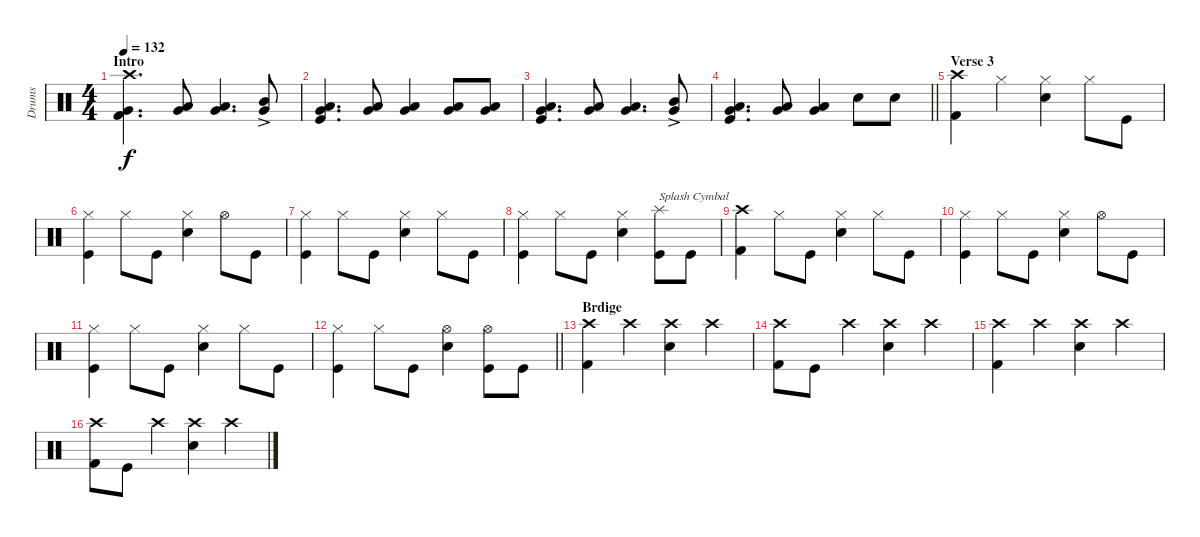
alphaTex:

\track ("Drums" "Drums") {instrument percussion}
\staff {score}
\articulation defaults
\ts (4 4)
\section ("" "Intro")
\tempo 132
\clef neutral
\ks c
("Crash high (hit)" "Very Low Tom (hit)" "Kick (hit) 2").4{d dy f} ("Very Low Tom (hit)" "Low Tom (hit)").8 ("Low Tom (hit)" "Very Low Tom (hit)").4{d} ("Very Low Tom (hit)"{ac} "Mid Tom (hit)"{ac}).8 |
("Very Low Tom (hit)" "Low Tom (hit)" "Kick (hit)").4{d} ("Very Low Tom (hit)" "Low Tom (hit)").8 ("Low Tom (hit)" "Very Low Tom (hit)").4 ("Very Low Tom (hit)" "Low Tom (hit)").8 ("Low Tom (hit)" "Very Low Tom (hit)").8 |
("Very Low Tom (hit)" "Low Tom (hit)" "Kick (hit)").4{d} ("Very Low Tom (hit)" "Low Tom (hit)").8 ("Low Tom (hit)" "Very Low Tom (hit)").4{d} ("Mid Tom (hit)"{ac} "Very Low Tom (hit)"{ac}).8 |
\barLineRight lightlight
("Very Low Tom (hit)" "Low Tom (hit)" "Kick (hit)").4{d} ("Very Low Tom (hit)" "Low Tom (hit)").8 ("Low Tom (hit)" "Very Low Tom (hit)").4 "Snare (hit) 2".8 "Snare (hit) 2".8 |
\section ("" "Verse 3")
("Crash high (hit)" "Kick (hit) 2").4 "Hi-Hat (closed)".4 ("Hi-Hat (closed)" "Snare (hit) 2").4 "Hi-Hat (closed)".8 "Kick (hit)".8 |
("Hi-Hat (closed)" "Kick (hit)").4 "Hi-Hat (closed)".8 "Kick (hit)".8 ("Hi-Hat (closed)" "Snare (hit) 2").4 "Hi-Hat (open)".8 "Kick (hit)".8 |
("Hi-Hat (closed)" "Kick (hit)").4 "Hi-Hat (closed)".8 "Kick (hit)".8 ("Hi-Hat (closed)" "Snare (hit) 2").4 "Hi-Hat (closed)".8 "Kick (hit)".8 |
("Hi-Hat (closed)" "Kick (hit)").4 "Hi-Hat (closed)".8 "Kick (hit)".8 ("Hi-Hat (closed)" "Snare (hit) 2").4 ("Splash (hit)" "Kick (hit)").8{txt "Splash Cymbal"} "Kick (hit)".8 |
("Crash high (hit)" "Kick (hit) 2").4 "Hi-Hat (closed)".8 "Kick (hit)".8 ("Hi-Hat (closed)" "Snare (hit) 2").4 "Hi-Hat (closed)".8 "Kick (hit)".8 |
("Hi-Hat (closed)" "Kick (hit)").4 "Hi-Hat (closed)".8 "Kick (hit)".8 ("Hi-Hat (closed)" "Snare (hit) 2").4 "Hi-Hat (open)".8 "Kick (hit)".8 |
("Hi-Hat (closed)" "Kick (hit)").4 "Hi-Hat (closed)".8 "Kick (hit)".8 ("Hi-Hat (closed)" "Snare (hit) 2").4 "Hi-Hat (closed)".8 "Kick (hit)".8 |
\barLineRight lightlight
("Hi-Hat (closed)" "Kick (hit)").4 "Hi-Hat (closed)".8 "Kick (hit)".8 ("Hi-Hat (open)" "Snare (hit) 2").4 ("Hi-Hat (open)" "Kick (hit)").8 "Kick (hit)".8 |
\section ("" "Brdige")
("Crash high (hit)" "Kick (hit) 2").4 "Crash high (hit)".4 ("Crash high (hit)" "Snare (hit) 2").4 "Crash high (hit)".4 |
("Crash high (hit)" "Kick (hit) 2").8 "Kick (hit)".8 "Crash high (hit)".4 ("Crash high (hit)" "Snare (hit) 2").4 "Crash high (hit)".4 |
("Crash high (hit)" "Kick (hit) 2").4 "Crash high (hit)".4 ("Crash high (hit)" "Snare (hit) 2").4 "Crash high (hit)".4 |
("Crash high (hit)" "Kick (hit) 2").8 "Kick (hit)".8 "Crash high (hit)".4 ("Crash high (hit)" "Snare (hit) 2").4 "Crash high (hit)".4
